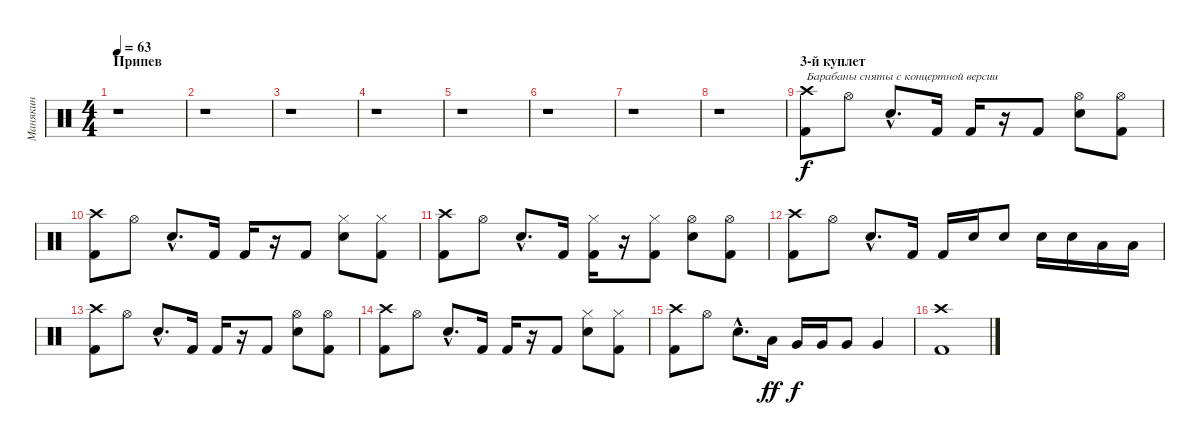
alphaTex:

\track ("Манякин" "Манякин") {instrument percussion}
\staff {score}
\articulation defaults
\ts (4 4)
\section ("" "Припев")
\tempo 63
\clef neutral
\ks c
r.1{dy f} |
r.1 |
r.1 |
r.1 |
r.1 |
r.1 |
r.1 |
r.1 |
\section ("" "3-й куплет")
("Kick (hit) 2" "Crash high (hit)").8{txt "Барабаны сняты с концертной версии" volume 13} "Hi-Hat (open)".8 "Electric Snare (hit)"{hac}.8{d} "Kick (hit) 2".16 "Kick (hit) 2".16 r.16 "Kick (hit) 2".8 ("Hi-Hat (open)" "Electric Snare (hit)").8 ("Hi-Hat (open)" "Kick (hit) 2").8 |
("Kick (hit) 2" "Crash high (hit)").8 "Hi-Hat (open)".8 "Electric Snare (hit)"{hac}.8{d} "Kick (hit) 2".16 "Kick (hit) 2".16 r.16 "Kick (hit) 2".8 ("Hi-Hat (closed)" "Electric Snare (hit)").8 ("Hi-Hat (closed)" "Kick (hit) 2").8 |
("Kick (hit) 2" "Crash high (hit)").8 "Hi-Hat (open)".8 "Electric Snare (hit)"{hac}.8{d} "Kick (hit) 2".16 ("Hi-Hat (closed)" "Kick (hit) 2").16 r.16 ("Hi-Hat (closed)" "Kick (hit) 2").8 ("Hi-Hat (open)" "Electric Snare (hit)").8 ("Hi-Hat (open)" "Kick (hit) 2").8 |
("Kick (hit) 2" "Crash high (hit)").8 "Hi-Hat (open)".8 "Electric Snare (hit)"{hac}.8{d} "Kick (hit) 2".16 "Kick (hit) 2".16 "Electric Snare (hit)".16 "Electric Snare (hit)".8 "Electric Snare (hit)".16 "Electric Snare (hit)".16 "Low Tom (hit)".16 "Low Tom (hit)".16 |
("Kick (hit) 2" "Crash high (hit)").8 "Hi-Hat (open)".8 "Electric Snare (hit)"{hac}.8{d} "Kick (hit) 2".16 "Kick (hit) 2".16 r.16 "Kick (hit) 2".8 ("Hi-Hat (open)" "Electric Snare (hit)").8 ("Hi-Hat (open)" "Kick (hit) 2").8 |
("Kick (hit) 2" "Crash high (hit)").8 "Hi-Hat (open)".8 "Electric Snare (hit)"{hac}.8{d} "Kick (hit) 2".16 "Kick (hit) 2".16 r.16 "Kick (hit) 2".8 ("Hi-Hat (closed)" "Electric Snare (hit)").8 ("Hi-Hat (closed)" "Kick (hit) 2").8 |
("Kick (hit) 2" "Crash high (hit)").8 "Hi-Hat (open)".8 "Electric Snare (hit)"{hac}.8{d} "Low Tom (hit)".16{dy ff} "Very Low Tom (hit)".16{dy f} "Very Low Tom (hit)".16 "Very Low Tom (hit)".8 "Very Low Tom (hit)".4 |
("Kick (hit) 2" "Crash high (hit)").1
